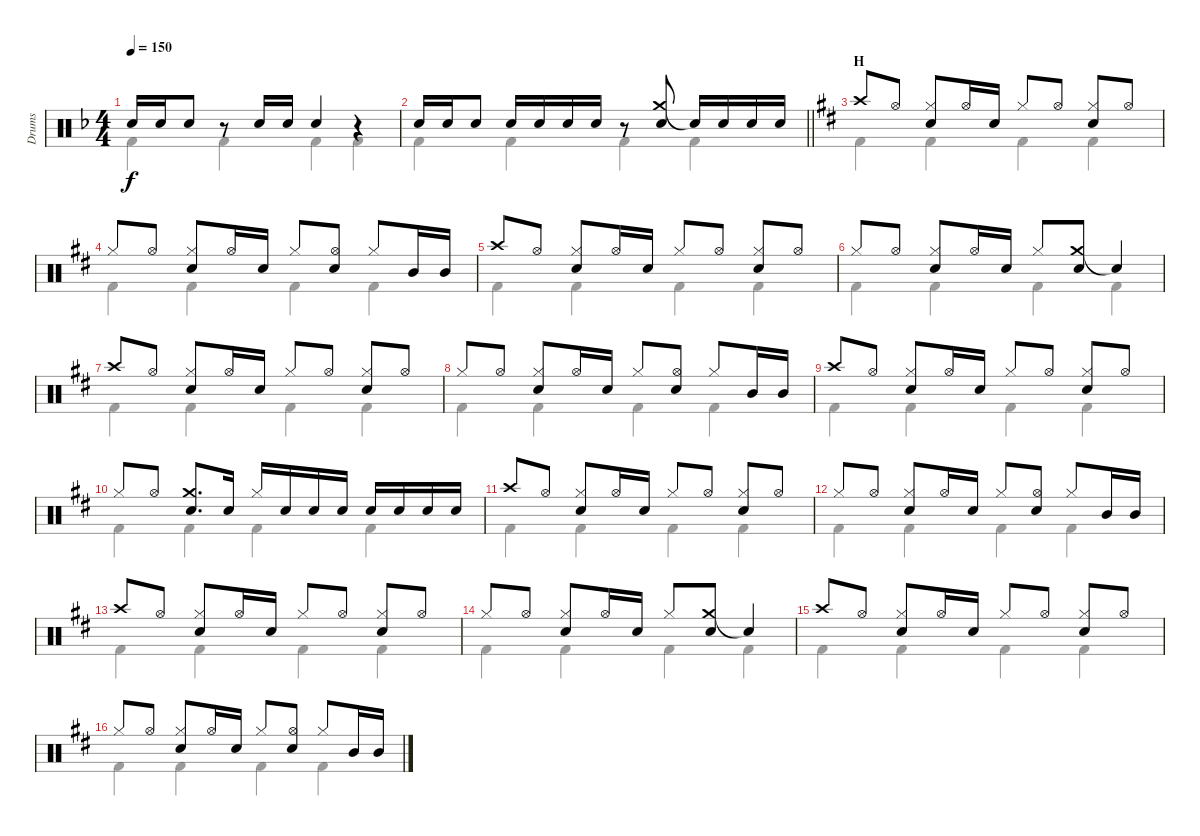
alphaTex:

\track ("Drums" "Drums") {instrument percussion}
\staff {score}
\articulation defaults
\voice
\ts (4 4)
\tempo 150
\clef neutral
\ks f "Snare (hit) 2".16{dy f} "Snare (hit) 2".16 "Snare (hit) 2".8
r.8 "Snare (hit) 2".16 "Snare (hit) 2".16 "Snare (hit) 2".4 r.4 |
\barLineRight lightlight "Snare (hit) 2".16 "Snare (hit) 2".16 "Snare (hit) 2".8 "Snare (hit) 2".16 "Snare (hit) 2".16 "Snare (hit) 2".16 "Snare (hit) 2".16
r.8 ("Crash medium (hit)" "Snare (hit) 2").8 "Snare (hit)"{t}.16 "Snare (hit) 2".16 "Snare (hit) 2".16 "Snare (hit) 2".16 |
\section ("" "H")
\ks d "Crash high (hit)".8 "Hi-Hat (open)".8
("Hi-Hat (closed)" "Snare (hit) 2").8 "Hi-Hat (open)".16 "Snare (hit) 2".16 "Hi-Hat (closed)".8 "Hi-Hat (open)".8 ("Hi-Hat (closed)" "Snare (hit) 2").8 "Hi-Hat (open)".8 |
"Hi-Hat (closed)".8 "Hi-Hat (open)".8 ("Hi-Hat (closed)" "Snare (hit) 2").8 "Hi-Hat (open)".16 "Snare (hit) 2".16 "Hi-Hat (closed)".8 ("Hi-Hat (open)" "Snare (hit) 2").8 "Hi-Hat (closed)".8 "Mid Tom (hit)".16 "Mid Tom (hit)".16 |
"Crash high (hit)".8 "Hi-Hat (open)".8 ("Hi-Hat (closed)" "Snare (hit) 2").8 "Hi-Hat (open)".16 "Snare (hit) 2".16 "Hi-Hat (closed)".8 "Hi-Hat (open)".8 ("Hi-Hat (closed)" "Snare (hit) 2").8 "Hi-Hat (open)".8 |
"Hi-Hat (closed)".8 "Hi-Hat (open)".8 ("Hi-Hat (closed)" "Snare (hit) 2").8 "Hi-Hat (open)".16 "Snare (hit) 2".16 "Hi-Hat (closed)".8 ("Crash medium (hit)" "Snare (hit) 2").8 "Snare (hit)"{t}.4 |
"Crash high (hit)".8 "Hi-Hat (open)".8 ("Hi-Hat (closed)" "Snare (hit) 2").8 "Hi-Hat (open)".16 "Snare (hit) 2".16 "Hi-Hat (closed)".8 "Hi-Hat (open)".8 ("Hi-Hat (closed)" "Snare (hit) 2").8 "Hi-Hat (open)".8 |
"Hi-Hat (closed)".8 "Hi-Hat (open)".8 ("Hi-Hat (closed)" "Snare (hit) 2").8 "Hi-Hat (open)".16 "Snare (hit) 2".16 "Hi-Hat (closed)".8 ("Hi-Hat (open)" "Snare (hit) 2").8 "Hi-Hat (closed)".8 "Mid Tom (hit)".16 "Mid Tom (hit)".16 |
"Crash high (hit)".8 "Hi-Hat (open)".8 ("Hi-Hat (closed)" "Snare (hit) 2").8 "Hi-Hat (open)".16 "Snare (hit) 2".16 "Hi-Hat (closed)".8 "Hi-Hat (open)".8 ("Hi-Hat (closed)" "Snare (hit) 2").8 "Hi-Hat (open)".8 |
"Hi-Hat (closed)".8 "Hi-Hat (open)".8 ("Crash medium (hit)" "Snare (hit) 2").8{d} "Snare (hit) 2".16 "Hi-Hat (closed)".16 "Snare (hit) 2".16 "Snare (hit) 2".16 "Snare (hit) 2".16 "Snare (hit) 2".16 "Snare (hit) 2".16 "Snare (hit) 2".16 "Snare (hit) 2".16 |
"Crash high (hit)".8 "Hi-Hat (open)".8 ("Hi-Hat (closed)" "Snare (hit) 2").8 "Hi-Hat (open)".16 "Snare (hit) 2".16 "Hi-Hat (closed)".8 "Hi-Hat (open)".8 ("Hi-Hat (closed)" "Snare (hit) 2").8 "Hi-Hat (open)".8 |
"Hi-Hat (closed)".8 "Hi-Hat (open)".8 ("Hi-Hat (closed)" "Snare (hit) 2").8 "Hi-Hat (open)".16 "Snare (hit) 2".16 "Hi-Hat (closed)".8 ("Hi-Hat (open)" "Snare (hit) 2").8 "Hi-Hat (closed)".8 "Mid Tom (hit)".16 "Mid Tom (hit)".16 |
"Crash high (hit)".8 "Hi-Hat (open)".8 ("Hi-Hat (closed)" "Snare (hit) 2").8 "Hi-Hat (open)".16 "Snare (hit) 2".16 "Hi-Hat (closed)".8 "Hi-Hat (open)".8 ("Hi-Hat (closed)" "Snare (hit) 2").8 "Hi-Hat (open)".8 |
"Hi-Hat (closed)".8 "Hi-Hat (open)".8 ("Hi-Hat (closed)" "Snare (hit) 2").8 "Hi-Hat (open)".16 "Snare (hit) 2".16 "Hi-Hat (closed)".8 ("Crash medium (hit)" "Snare (hit) 2").8 "Snare (hit)"{t}.4 |
"Crash high (hit)".8 "Hi-Hat (open)".8 ("Hi-Hat (closed)" "Snare (hit) 2").8 "Hi-Hat (open)".16 "Snare (hit) 2".16 "Hi-Hat (closed)".8 "Hi-Hat (open)".8 ("Hi-Hat (closed)" "Snare (hit) 2").8 "Hi-Hat (open)".8 |
"Hi-Hat (closed)".8 "Hi-Hat (open)".8 ("Hi-Hat (closed)" "Snare (hit) 2").8 "Hi-Hat (open)".16 "Snare (hit) 2".16 "Hi-Hat (closed)".8 ("Hi-Hat (open)" "Snare (hit) 2").8 "Hi-Hat (closed)".8 "Mid Tom (hit)".16 "Mid Tom (hit)".16
\voice
\clef neutral
\ottava regular
\simile none
\ks f "Kick (hit) 2".4{dy f} "Kick (hit) 2".4 "Kick (hit) 2".4 "Kick (hit) 2".4
|
\barLineRight lightlight "Kick (hit) 2".4 "Kick (hit) 2".4 "Kick (hit) 2".4 "Kick (hit) 2".4
|
\ks d "Kick (hit) 2".4 "Kick (hit) 2".4 "Kick (hit) 2".4 "Kick (hit) 2".4
|
"Kick (hit) 2".4 "Kick (hit) 2".4 "Kick (hit) 2".4 "Kick (hit) 2".4 |
"Kick (hit) 2".4 "Kick (hit) 2".4 "Kick (hit) 2".4 "Kick (hit) 2".4 |
"Kick (hit) 2".4 "Kick (hit) 2".4 "Kick (hit) 2".4 "Kick (hit) 2".4 |
"Kick (hit) 2".4 "Kick (hit) 2".4 "Kick (hit) 2".4 "Kick (hit) 2".4 |
"Kick (hit) 2".4 "Kick (hit) 2".4 "Kick (hit) 2".4 "Kick (hit) 2".4 |
"Kick (hit) 2".4 "Kick (hit) 2".4 "Kick (hit) 2".4 "Kick (hit) 2".4 |
"Kick (hit) 2".4 "Kick (hit) 2".4 "Kick (hit) 2".4 "Kick (hit) 2".4 |
"Kick (hit) 2".4 "Kick (hit) 2".4 "Kick (hit) 2".4 "Kick (hit) 2".4 |
"Kick (hit) 2".4 "Kick (hit) 2".4 "Kick (hit) 2".4 "Kick (hit) 2".4 |
"Kick (hit) 2".4 "Kick (hit) 2".4 "Kick (hit) 2".4 "Kick (hit) 2".4 |
"Kick (hit) 2".4 "Kick (hit) 2".4 "Kick (hit) 2".4 "Kick (hit) 2".4 |
"Kick (hit) 2".4 "Kick (hit) 2".4 "Kick (hit) 2".4 "Kick (hit) 2".4 |
"Kick (hit) 2".4 "Kick (hit) 2".4 "Kick (hit) 2".4 "Kick (hit) 2".4
